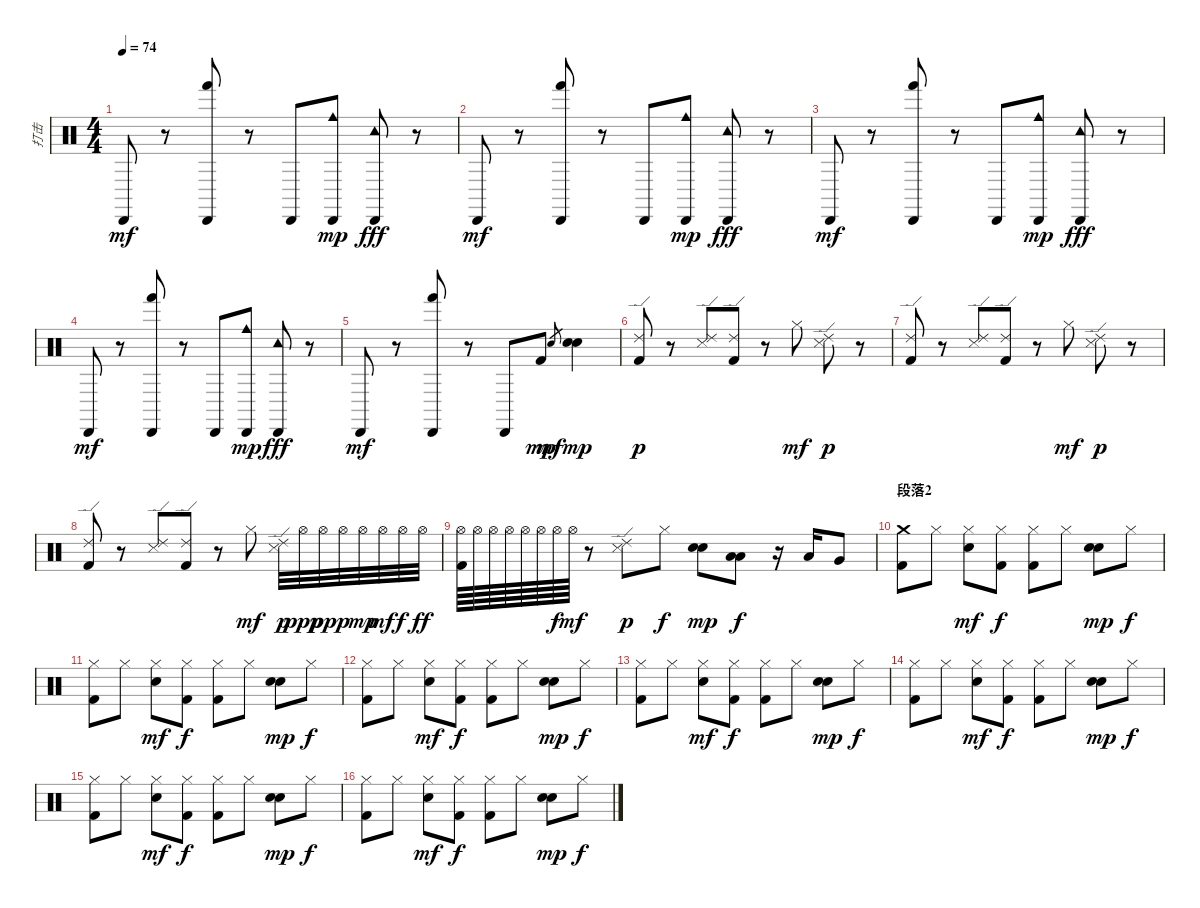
\track ("打击" "打击") {instrument percussion}
\staff {score}
\articulation defaults
\ts (4 4)
\tempo 74
\clef neutral
\ks c "Cabasa (hit)".8{dy mf}
r.8 ("Cabasa (hit)" "Hand (hit)").8 r.8 "Cabasa (hit)".8 ("Cabasa (hit)" "Cowbell medium (hit)").8{dy mp} ("Cabasa (hit)" "Tambourine (hit)").8{dy fff} r.8 |
"Cabasa (hit)".8{dy mf} r.8 ("Cabasa (hit)" "Hand (hit)").8 r.8 "Cabasa (hit)".8 ("Cabasa (hit)" "Cowbell medium (hit)").8{dy mp} ("Cabasa (hit)" "Tambourine (hit)").8{dy fff} r.8 |
"Cabasa (hit)".8{dy mf} r.8 ("Cabasa (hit)" "Hand (hit)").8 r.8 "Cabasa (hit)".8 ("Cabasa (hit)" "Cowbell medium (hit)").8{dy mp} ("Cabasa (hit)" "Tambourine (hit)").8{dy fff} r.8 |
"Cabasa (hit)".8{dy mf} r.8 ("Cabasa (hit)" "Hand (hit)").8 r.8 "Cabasa (hit)".8 ("Cabasa (hit)" "Cowbell medium (hit)").8{dy mp} ("Cabasa (hit)" "Tambourine (hit)").8{dy fff} r.8 |
"Cabasa (hit)".8{dy mf} r.8 ("Cabasa (hit)" "Hand (hit)").8 r.8 "Cabasa (hit)".8 "Kick (hit) 2".8{dy mp} "Snare (hit) 2".8{gr dy mf} ("Snare (hit) 2" "Electric Snare (hit)").4{dy mp} |
("Ride (edge) 2" "Kick (hit) 2").8{dy p} r.8 ("Ride (edge) 2" "Snare (side stick) 3").8 ("Ride (edge) 2" "Kick (hit) 2").8 r.8 "Hi-Hat (closed)".8{dy mf} ("Ride (edge) 2" "Snare (side stick) 3").8{dy p} r.8 |
("Ride (edge) 2" "Kick (hit) 2").8 r.8 ("Ride (edge) 2" "Snare (side stick) 3").8 ("Ride (edge) 2" "Kick (hit) 2").8 r.8 "Hi-Hat (closed)".8{dy mf} ("Ride (edge) 2" "Snare (side stick) 3").8{dy p} r.8 |
("Ride (edge) 2" "Kick (hit) 2").8 r.8 ("Ride (edge) 2" "Snare (side stick) 3").8 ("Ride (edge) 2" "Kick (hit) 2").8 r.8 "Hi-Hat (closed)".8{dy mf} ("Ride (edge) 2" "Snare (side stick) 3").32{dy p} "Hi-Hat (open)".32{dy ppp} "Hi-Hat (open)".32{dy pp} "Hi-Hat (open)".32{dy p} "Hi-Hat (open)".32{dy mp} "Hi-Hat (open)".32{dy mf} "Hi-Hat (open)".32{dy f} "Hi-Hat (open)".32{dy ff} |
("Hi-Hat (open)" "Kick (hit) 2").64 "Hi-Hat (open)".64 "Hi-Hat (open)".64 "Hi-Hat (open)".64 "Hi-Hat (open)".64 "Hi-Hat (open)".64 "Hi-Hat (open)".64{dy f} "Hi-Hat (open)".64{dy mf} r.8 ("Ride (edge) 2" "Snare (side stick) 3").8{dy p} "Hi-Hat (closed)".8{dy f} ("Snare (hit) 2" "Electric Snare (hit)").8{dy mp} ("Low Tom (hit)" "Low Floor Tom (hit)").8{dy f} r.16 "Low Tom (hit)".16 "Very Low Tom (hit)".8 |
\section ("" "段落2")
("Crash medium (hit)" "Kick (hit) 2").8 "Hi-Hat (closed)".8 ("Hi-Hat (closed)" "Electric Snare (hit)").8{dy mf} ("Hi-Hat (closed)" "Kick (hit) 2").8{dy f} ("Hi-Hat (closed)" "Kick (hit) 2").8 "Hi-Hat (closed)".8 ("Snare (hit) 2" "Electric Snare (hit)").8{dy mp} "Hi-Hat (closed)".8{dy f} |
("Hi-Hat (closed)" "Kick (hit) 2").8 "Hi-Hat (closed)".8 ("Hi-Hat (closed)" "Electric Snare (hit)").8{dy mf} ("Hi-Hat (closed)" "Kick (hit) 2").8{dy f} ("Hi-Hat (closed)" "Kick (hit) 2").8 "Hi-Hat (closed)".8 ("Snare (hit) 2" "Electric Snare (hit)").8{dy mp} "Hi-Hat (closed)".8{dy f} |
("Hi-Hat (closed)" "Kick (hit) 2").8 "Hi-Hat (closed)".8 ("Hi-Hat (closed)" "Electric Snare (hit)").8{dy mf} ("Hi-Hat (closed)" "Kick (hit) 2").8{dy f} ("Hi-Hat (closed)" "Kick (hit) 2").8 "Hi-Hat (closed)".8 ("Snare (hit) 2" "Electric Snare (hit)").8{dy mp} "Hi-Hat (closed)".8{dy f} |
("Hi-Hat (closed)" "Kick (hit) 2").8 "Hi-Hat (closed)".8 ("Hi-Hat (closed)" "Electric Snare (hit)").8{dy mf} ("Hi-Hat (closed)" "Kick (hit) 2").8{dy f} ("Hi-Hat (closed)" "Kick (hit) 2").8 "Hi-Hat (closed)".8 ("Snare (hit) 2" "Electric Snare (hit)").8{dy mp} "Hi-Hat (closed)".8{dy f} |
("Hi-Hat (closed)" "Kick (hit) 2").8 "Hi-Hat (closed)".8 ("Hi-Hat (closed)" "Electric Snare (hit)").8{dy mf} ("Hi-Hat (closed)" "Kick (hit) 2").8{dy f} ("Hi-Hat (closed)" "Kick (hit) 2").8 "Hi-Hat (closed)".8 ("Snare (hit) 2" "Electric Snare (hit)").8{dy mp} "Hi-Hat (closed)".8{dy f} |
("Hi-Hat (closed)" "Kick (hit) 2").8 "Hi-Hat (closed)".8 ("Hi-Hat (closed)" "Electric Snare (hit)").8{dy mf} ("Hi-Hat (closed)" "Kick (hit) 2").8{dy f} ("Hi-Hat (closed)" "Kick (hit) 2").8 "Hi-Hat (closed)".8 ("Snare (hit) 2" "Electric Snare (hit)").8{dy mp} "Hi-Hat (closed)".8{dy f} |
("Hi-Hat (closed)" "Kick (hit) 2").8 "Hi-Hat (closed)".8 ("Hi-Hat (closed)" "Electric Snare (hit)").8{dy mf} ("Hi-Hat (closed)" "Kick (hit) 2").8{dy f} ("Hi-Hat (closed)" "Kick (hit) 2").8 "Hi-Hat (closed)".8 ("Snare (hit) 2" "Electric Snare (hit)").8{dy mp} "Hi-Hat (closed)".8{dy f}
